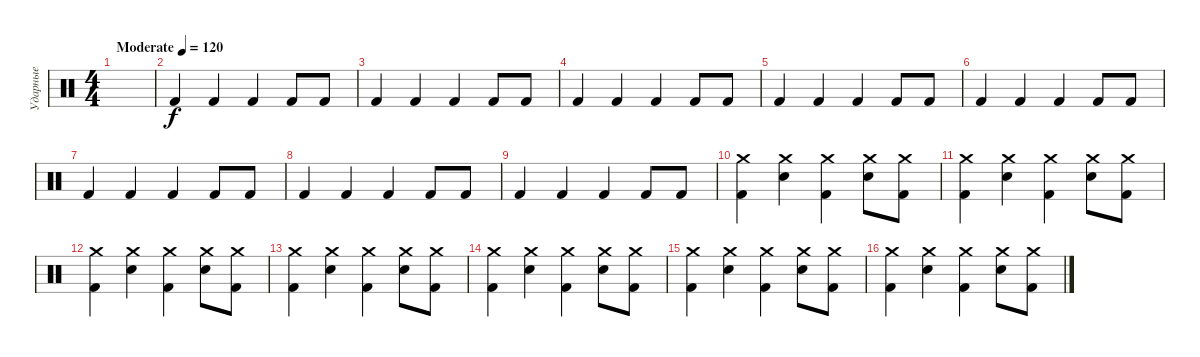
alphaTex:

\track ("Ударные" "Ударные") {instrument percussion}
\staff {score}
\articulation defaults
\ts (4 4)
\tempo (120 "Moderate")
\clef neutral
\ks c
|
"Kick (hit) 2".4 "Kick (hit) 2".4 "Kick (hit) 2".4 "Kick (hit) 2".8 "Kick (hit) 2".8 |
"Kick (hit) 2".4 "Kick (hit) 2".4 "Kick (hit) 2".4 "Kick (hit) 2".8 "Kick (hit) 2".8 |
"Kick (hit) 2".4 "Kick (hit) 2".4 "Kick (hit) 2".4 "Kick (hit) 2".8 "Kick (hit) 2".8 |
"Kick (hit) 2".4 "Kick (hit) 2".4 "Kick (hit) 2".4 "Kick (hit) 2".8 "Kick (hit) 2".8 |
"Kick (hit) 2".4 "Kick (hit) 2".4 "Kick (hit) 2".4 "Kick (hit) 2".8 "Kick (hit) 2".8 |
"Kick (hit) 2".4 "Kick (hit) 2".4 "Kick (hit) 2".4 "Kick (hit) 2".8 "Kick (hit) 2".8 |
"Kick (hit) 2".4 "Kick (hit) 2".4 "Kick (hit) 2".4 "Kick (hit) 2".8 "Kick (hit) 2".8 |
"Kick (hit) 2".4 "Kick (hit) 2".4 "Kick (hit) 2".4 "Kick (hit) 2".8 "Kick (hit) 2".8 |
("Crash medium (hit)" "Kick (hit) 2").4 ("Crash medium (hit)" "Electric Snare (hit)").4 ("Crash medium (hit)" "Kick (hit) 2").4 ("Crash medium (hit)" "Electric Snare (hit)").8 ("Crash medium (hit)" "Kick (hit) 2").8 |
("Crash medium (hit)" "Kick (hit) 2").4 ("Crash medium (hit)" "Electric Snare (hit)").4 ("Crash medium (hit)" "Kick (hit) 2").4 ("Crash medium (hit)" "Electric Snare (hit)").8 ("Crash medium (hit)" "Kick (hit) 2").8 |
("Crash medium (hit)" "Kick (hit) 2").4 ("Crash medium (hit)" "Electric Snare (hit)").4 ("Crash medium (hit)" "Kick (hit) 2").4 ("Crash medium (hit)" "Electric Snare (hit)").8 ("Crash medium (hit)" "Kick (hit) 2").8 |
("Crash medium (hit)" "Kick (hit) 2").4 ("Crash medium (hit)" "Electric Snare (hit)").4 ("Crash medium (hit)" "Kick (hit) 2").4 ("Crash medium (hit)" "Electric Snare (hit)").8 ("Crash medium (hit)" "Kick (hit) 2").8 |
("Crash medium (hit)" "Kick (hit) 2").4 ("Crash medium (hit)" "Electric Snare (hit)").4 ("Crash medium (hit)" "Kick (hit) 2").4 ("Crash medium (hit)" "Electric Snare (hit)").8 ("Crash medium (hit)" "Kick (hit) 2").8 |
("Crash medium (hit)" "Kick (hit) 2").4 ("Crash medium (hit)" "Electric Snare (hit)").4 ("Crash medium (hit)" "Kick (hit) 2").4 ("Crash medium (hit)" "Electric Snare (hit)").8 ("Crash medium (hit)" "Kick (hit) 2").8 |
("Crash medium (hit)" "Kick (hit) 2").4 ("Crash medium (hit)" "Electric Snare (hit)").4 ("Crash medium (hit)" "Kick (hit) 2").4 ("Crash medium (hit)" "Electric Snare (hit)").8 ("Crash medium (hit)" "Kick (hit) 2").8
